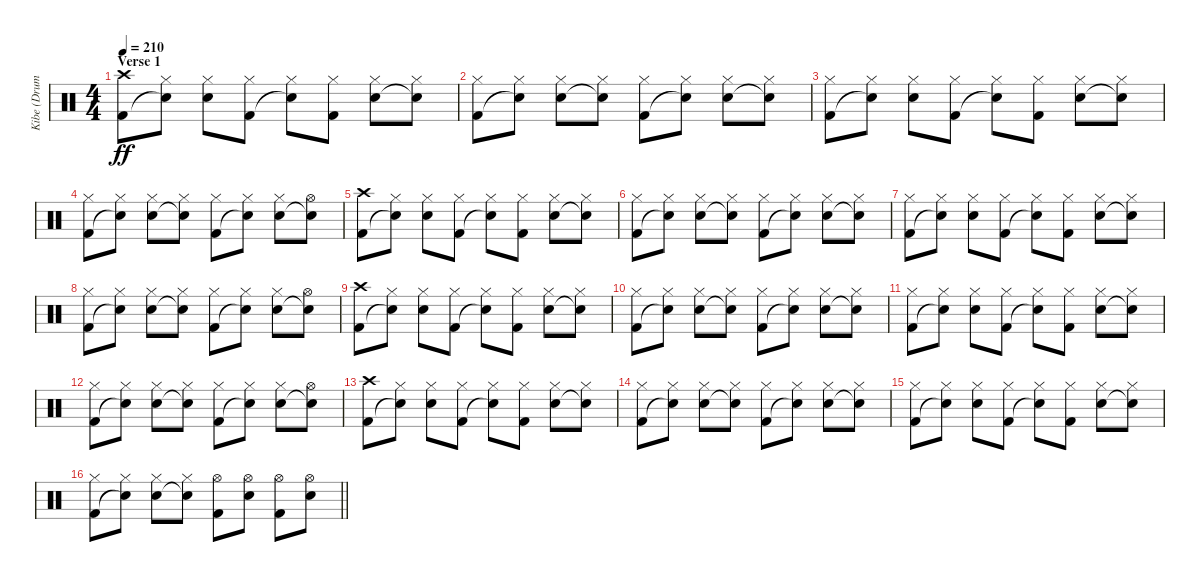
\track ("Kibe (Drums)" "Kibe (Drum") {instrument percussion}
\staff {score}
\articulation defaults
\ts (4 4)
\section ("" "Verse 1")
\tempo 210
\clef neutral
\ks c
("Crash high (hit)" "Kick (hit) 2").8{dy ff} ("Hi-Hat (closed)" "Snare (hit)"{t}).8 ("Hi-Hat (closed)" "Snare (hit) 2").8 ("Hi-Hat (closed)" "Kick (hit) 2").8 ("Hi-Hat (closed)" "Snare (hit)"{t}).8 ("Hi-Hat (closed)" "Kick (hit) 2").8 ("Hi-Hat (closed)" "Snare (hit) 2").8 ("Hi-Hat (closed)" "Snare (hit)"{t}).8 |
("Hi-Hat (closed)" "Kick (hit) 2").8 ("Hi-Hat (closed)" "Snare (hit)"{t}).8 ("Hi-Hat (closed)" "Snare (hit) 2").8 ("Hi-Hat (closed)" "Snare (hit)"{t}).8 ("Hi-Hat (closed)" "Kick (hit) 2").8 ("Hi-Hat (closed)" "Snare (hit)"{t}).8 ("Hi-Hat (closed)" "Snare (hit) 2").8 ("Hi-Hat (closed)" "Snare (hit)"{t}).8 |
("Hi-Hat (closed)" "Kick (hit) 2").8 ("Hi-Hat (closed)" "Snare (hit)"{t}).8 ("Hi-Hat (closed)" "Snare (hit) 2").8 ("Hi-Hat (closed)" "Kick (hit) 2").8 ("Hi-Hat (closed)" "Snare (hit)"{t}).8 ("Hi-Hat (closed)" "Kick (hit) 2").8 ("Hi-Hat (closed)" "Snare (hit) 2").8 ("Hi-Hat (closed)" "Snare (hit)"{t}).8 |
("Hi-Hat (closed)" "Kick (hit) 2").8 ("Hi-Hat (closed)" "Snare (hit)"{t}).8 ("Hi-Hat (closed)" "Snare (hit) 2").8 ("Hi-Hat (closed)" "Snare (hit)"{t}).8 ("Hi-Hat (closed)" "Kick (hit) 2").8 ("Hi-Hat (closed)" "Snare (hit)"{t}).8 ("Hi-Hat (closed)" "Snare (hit) 2").8 ("Hi-Hat (open)" "Snare (hit)"{t}).8 |
("Crash high (hit)" "Kick (hit) 2").8 ("Hi-Hat (closed)" "Snare (hit)"{t}).8 ("Hi-Hat (closed)" "Snare (hit) 2").8 ("Hi-Hat (closed)" "Kick (hit) 2").8 ("Hi-Hat (closed)" "Snare (hit)"{t}).8 ("Hi-Hat (closed)" "Kick (hit) 2").8 ("Hi-Hat (closed)" "Snare (hit) 2").8 ("Hi-Hat (closed)" "Snare (hit)"{t}).8 |
("Hi-Hat (closed)" "Kick (hit) 2").8 ("Hi-Hat (closed)" "Snare (hit)"{t}).8 ("Hi-Hat (closed)" "Snare (hit) 2").8 ("Hi-Hat (closed)" "Snare (hit)"{t}).8 ("Hi-Hat (closed)" "Kick (hit) 2").8 ("Hi-Hat (closed)" "Snare (hit)"{t}).8 ("Hi-Hat (closed)" "Snare (hit) 2").8 ("Hi-Hat (closed)" "Snare (hit)"{t}).8 |
("Hi-Hat (closed)" "Kick (hit) 2").8 ("Hi-Hat (closed)" "Snare (hit)"{t}).8 ("Hi-Hat (closed)" "Snare (hit) 2").8 ("Hi-Hat (closed)" "Kick (hit) 2").8 ("Hi-Hat (closed)" "Snare (hit)"{t}).8 ("Hi-Hat (closed)" "Kick (hit) 2").8 ("Hi-Hat (closed)" "Snare (hit) 2").8 ("Hi-Hat (closed)" "Snare (hit)"{t}).8 |
("Hi-Hat (closed)" "Kick (hit) 2").8 ("Hi-Hat (closed)" "Snare (hit)"{t}).8 ("Hi-Hat (closed)" "Snare (hit) 2").8 ("Hi-Hat (closed)" "Snare (hit)"{t}).8 ("Hi-Hat (closed)" "Kick (hit) 2").8 ("Hi-Hat (closed)" "Snare (hit)"{t}).8 ("Hi-Hat (closed)" "Snare (hit) 2").8 ("Hi-Hat (open)" "Snare (hit)"{t}).8 |
("Crash high (hit)" "Kick (hit) 2").8 ("Hi-Hat (closed)" "Snare (hit)"{t}).8 ("Hi-Hat (closed)" "Snare (hit) 2").8 ("Hi-Hat (closed)" "Kick (hit) 2").8 ("Hi-Hat (closed)" "Snare (hit)"{t}).8 ("Hi-Hat (closed)" "Kick (hit) 2").8 ("Hi-Hat (closed)" "Snare (hit) 2").8 ("Hi-Hat (closed)" "Snare (hit)"{t}).8 |
("Hi-Hat (closed)" "Kick (hit) 2").8 ("Hi-Hat (closed)" "Snare (hit)"{t}).8 ("Hi-Hat (closed)" "Snare (hit) 2").8 ("Hi-Hat (closed)" "Snare (hit)"{t}).8 ("Hi-Hat (closed)" "Kick (hit) 2").8 ("Hi-Hat (closed)" "Snare (hit)"{t}).8 ("Hi-Hat (closed)" "Snare (hit) 2").8 ("Hi-Hat (closed)" "Snare (hit)"{t}).8 |
("Hi-Hat (closed)" "Kick (hit) 2").8 ("Hi-Hat (closed)" "Snare (hit)"{t}).8 ("Hi-Hat (closed)" "Snare (hit) 2").8 ("Hi-Hat (closed)" "Kick (hit) 2").8 ("Hi-Hat (closed)" "Snare (hit)"{t}).8 ("Hi-Hat (closed)" "Kick (hit) 2").8 ("Hi-Hat (closed)" "Snare (hit) 2").8 ("Hi-Hat (closed)" "Snare (hit)"{t}).8 |
("Hi-Hat (closed)" "Kick (hit) 2").8 ("Hi-Hat (closed)" "Snare (hit)"{t}).8 ("Hi-Hat (closed)" "Snare (hit) 2").8 ("Hi-Hat (closed)" "Snare (hit)"{t}).8 ("Hi-Hat (closed)" "Kick (hit) 2").8 ("Hi-Hat (closed)" "Snare (hit)"{t}).8 ("Hi-Hat (closed)" "Snare (hit) 2").8 ("Hi-Hat (open)" "Snare (hit)"{t}).8 |
("Crash high (hit)" "Kick (hit) 2").8 ("Hi-Hat (closed)" "Snare (hit)"{t}).8 ("Hi-Hat (closed)" "Snare (hit) 2").8 ("Hi-Hat (closed)" "Kick (hit) 2").8 ("Hi-Hat (closed)" "Snare (hit)"{t}).8 ("Hi-Hat (closed)" "Kick (hit) 2").8 ("Hi-Hat (closed)" "Snare (hit) 2").8 ("Hi-Hat (closed)" "Snare (hit)"{t}).8 |
("Hi-Hat (closed)" "Kick (hit) 2").8 ("Hi-Hat (closed)" "Snare (hit)"{t}).8 ("Hi-Hat (closed)" "Snare (hit) 2").8 ("Hi-Hat (closed)" "Snare (hit)"{t}).8 ("Hi-Hat (closed)" "Kick (hit) 2").8 ("Hi-Hat (closed)" "Snare (hit)"{t}).8 ("Hi-Hat (closed)" "Snare (hit) 2").8 ("Hi-Hat (closed)" "Snare (hit)"{t}).8 |
("Hi-Hat (closed)" "Kick (hit) 2").8 ("Hi-Hat (closed)" "Snare (hit)"{t}).8 ("Hi-Hat (closed)" "Snare (hit) 2").8 ("Hi-Hat (closed)" "Kick (hit) 2").8 ("Hi-Hat (closed)" "Snare (hit)"{t}).8 ("Hi-Hat (closed)" "Kick (hit) 2").8 ("Hi-Hat (closed)" "Snare (hit) 2").8 ("Hi-Hat (closed)" "Snare (hit)"{t}).8 |
\barLineRight lightlight
("Hi-Hat (closed)" "Kick (hit) 2").8 ("Hi-Hat (closed)" "Snare (hit)"{t}).8 ("Hi-Hat (closed)" "Snare (hit) 2").8 ("Hi-Hat (closed)" "Snare (hit)"{t}).8 ("Hi-Hat (open)" "Kick (hit) 2").8 ("Hi-Hat (open)" "Snare (hit) 2").8 ("Hi-Hat (open)" "Kick (hit) 2").8 ("Hi-Hat (open)" "Snare (hit) 2").8
